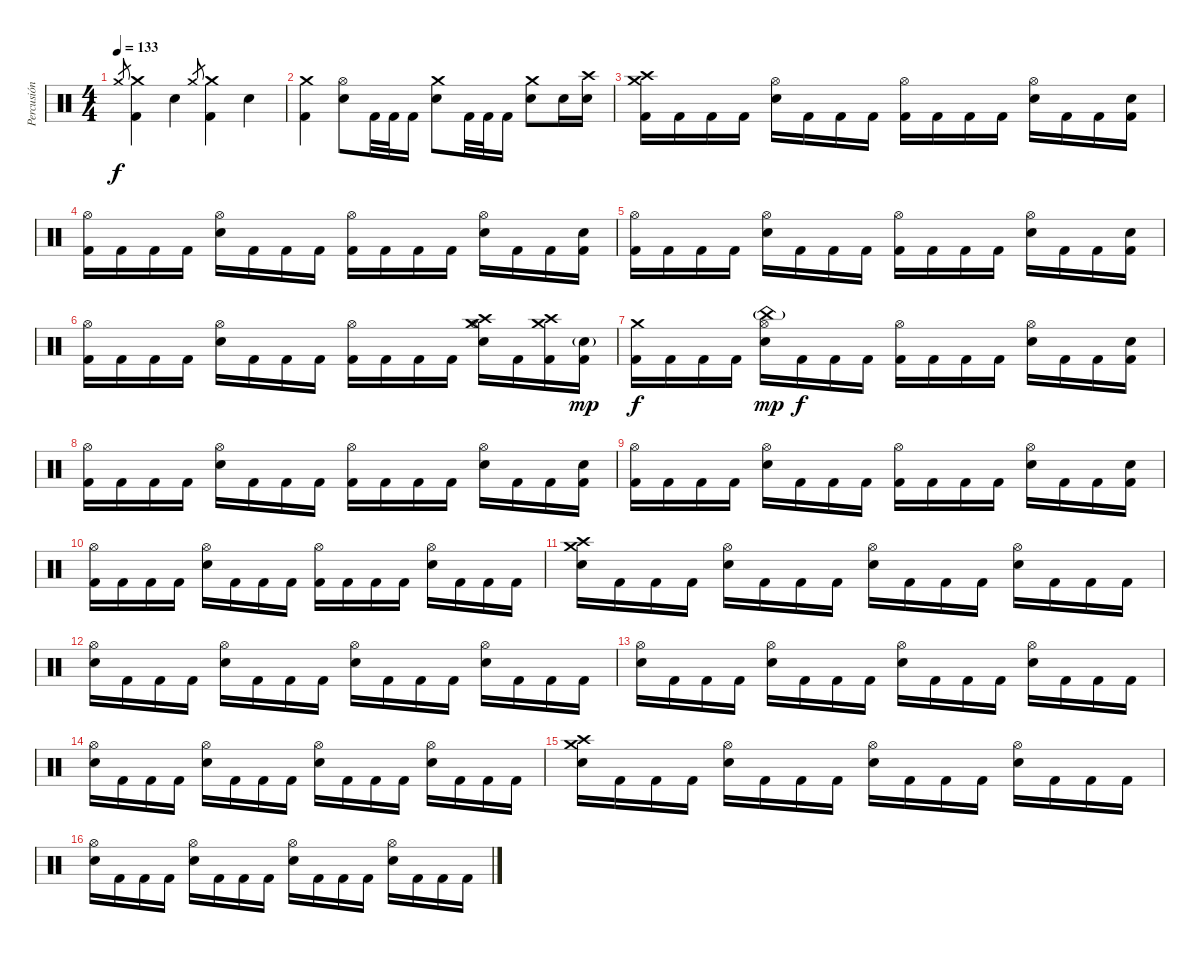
\track ("Percusión" "Percusión") {instrument percussion}
\staff {score}
\articulation defaults
\ts (4 4)
\tempo 133
\clef neutral
\ks c "Crash medium (hit)".8{gr dy f}
("Kick (hit) 2" "Crash medium (hit)").4 "Snare (hit) 2".4 "Crash medium (hit)".8{gr} ("Kick (hit) 2" "Crash medium (hit)").4 "Snare (hit) 2".4 |
("Kick (hit) 2" "Crash medium (hit)").4 ("Snare (hit) 2" "Hi-Hat (open)").8 "Kick (hit) 2".32 "Kick (hit) 2".32 "Kick (hit) 2".16 ("Snare (hit) 2" "Crash medium (hit)").8 "Kick (hit) 2".32 "Kick (hit) 2".32 "Kick (hit) 2".16 ("Snare (hit) 2" "Crash medium (hit)").8 "Snare (hit) 2".16 ("Snare (hit) 2" "Crash high (hit)").16 |
("Crash medium (hit)" "Kick (hit) 2" "Crash high (hit)").16 "Kick (hit) 2".16 "Kick (hit) 2".16 "Kick (hit) 2".16 ("Snare (hit) 2" "Hi-Hat (open)").16 "Kick (hit) 2".16 "Kick (hit) 2".16 "Kick (hit) 2".16 ("Kick (hit) 2" "Hi-Hat (open)").16 "Kick (hit) 2".16 "Kick (hit) 2".16 "Kick (hit) 2".16 ("Snare (hit) 2" "Hi-Hat (open)").16 "Kick (hit) 2".16 "Kick (hit) 2".16 ("Kick (hit) 2" "Snare (hit) 2").16 |
("Kick (hit) 2" "Hi-Hat (open)").16 "Kick (hit) 2".16 "Kick (hit) 2".16 "Kick (hit) 2".16 ("Snare (hit) 2" "Hi-Hat (open)").16 "Kick (hit) 2".16 "Kick (hit) 2".16 "Kick (hit) 2".16 ("Kick (hit) 2" "Hi-Hat (open)").16 "Kick (hit) 2".16 "Kick (hit) 2".16 "Kick (hit) 2".16 ("Snare (hit) 2" "Hi-Hat (open)").16 "Kick (hit) 2".16 "Kick (hit) 2".16 ("Kick (hit) 2" "Snare (hit) 2").16 |
("Kick (hit) 2" "Hi-Hat (open)").16 "Kick (hit) 2".16 "Kick (hit) 2".16 "Kick (hit) 2".16 ("Snare (hit) 2" "Hi-Hat (open)").16 "Kick (hit) 2".16 "Kick (hit) 2".16 "Kick (hit) 2".16 ("Kick (hit) 2" "Hi-Hat (open)").16 "Kick (hit) 2".16 "Kick (hit) 2".16 "Kick (hit) 2".16 ("Snare (hit) 2" "Hi-Hat (open)").16 "Kick (hit) 2".16 "Kick (hit) 2".16 ("Kick (hit) 2" "Snare (hit) 2").16 |
("Kick (hit) 2" "Hi-Hat (open)").16 "Kick (hit) 2".16 "Kick (hit) 2".16 "Kick (hit) 2".16 ("Snare (hit) 2" "Hi-Hat (open)").16 "Kick (hit) 2".16 "Kick (hit) 2".16 "Kick (hit) 2".16 ("Kick (hit) 2" "Hi-Hat (open)").16 "Kick (hit) 2".16 "Kick (hit) 2".16 "Kick (hit) 2".16 ("Snare (hit) 2" "Hi-Hat (open)" "Crash high (hit)" "Crash medium (hit)").16 "Kick (hit) 2".16 ("Kick (hit) 2" "Crash medium (hit)" "Crash high (hit)").16 ("Kick (hit) 2" "Snare (hit) 2"{g}).16{dy mp} |
("Crash medium (hit)" "Kick (hit) 2").16{dy f} "Kick (hit) 2".16 "Kick (hit) 2".16 "Kick (hit) 2".16 ("Snare (hit) 2" "China (hit)"{g} "Hi-Hat (open)").16{dy mp} "Kick (hit) 2".16{dy f} "Kick (hit) 2".16 "Kick (hit) 2".16 ("Kick (hit) 2" "Hi-Hat (open)").16 "Kick (hit) 2".16 "Kick (hit) 2".16 "Kick (hit) 2".16 ("Snare (hit) 2" "Hi-Hat (open)").16 "Kick (hit) 2".16 "Kick (hit) 2".16 ("Snare (hit) 2" "Kick (hit) 2").16 |
("Kick (hit) 2" "Hi-Hat (open)").16 "Kick (hit) 2".16 "Kick (hit) 2".16 "Kick (hit) 2".16 ("Snare (hit) 2" "Hi-Hat (open)").16 "Kick (hit) 2".16 "Kick (hit) 2".16 "Kick (hit) 2".16 ("Kick (hit) 2" "Hi-Hat (open)").16 "Kick (hit) 2".16 "Kick (hit) 2".16 "Kick (hit) 2".16 ("Snare (hit) 2" "Hi-Hat (open)").16 "Kick (hit) 2".16 "Kick (hit) 2".16 ("Kick (hit) 2" "Snare (hit) 2").16 |
("Kick (hit) 2" "Hi-Hat (open)").16 "Kick (hit) 2".16 "Kick (hit) 2".16 "Kick (hit) 2".16 ("Snare (hit) 2" "Hi-Hat (open)").16 "Kick (hit) 2".16 "Kick (hit) 2".16 "Kick (hit) 2".16 ("Kick (hit) 2" "Hi-Hat (open)").16 "Kick (hit) 2".16 "Kick (hit) 2".16 "Kick (hit) 2".16 ("Snare (hit) 2" "Hi-Hat (open)").16 "Kick (hit) 2".16 "Kick (hit) 2".16 ("Snare (hit) 2" "Kick (hit) 2").16 |
("Kick (hit) 2" "Hi-Hat (open)").16 "Kick (hit) 2".16 "Kick (hit) 2".16 "Kick (hit) 2".16 ("Snare (hit) 2" "Hi-Hat (open)").16 "Kick (hit) 2".16 "Kick (hit) 2".16 "Kick (hit) 2".16 ("Kick (hit) 2" "Hi-Hat (open)").16 "Kick (hit) 2".16 "Kick (hit) 2".16 "Kick (hit) 2".16 ("Snare (hit) 2" "Hi-Hat (open)").16 "Kick (hit) 2".16 "Kick (hit) 2".16 "Kick (hit) 2".16 |
("Snare (hit) 2" "Crash medium (hit)" "Crash high (hit)").16 "Kick (hit) 2".16 "Kick (hit) 2".16 "Kick (hit) 2".16 ("Snare (hit) 2" "Hi-Hat (open)").16 "Kick (hit) 2".16 "Kick (hit) 2".16 "Kick (hit) 2".16 ("Snare (hit) 2" "Hi-Hat (open)").16 "Kick (hit) 2".16 "Kick (hit) 2".16 "Kick (hit) 2".16 ("Snare (hit) 2" "Hi-Hat (open)").16 "Kick (hit) 2".16 "Kick (hit) 2".16 "Kick (hit) 2".16 |
("Snare (hit) 2" "Hi-Hat (open)").16 "Kick (hit) 2".16 "Kick (hit) 2".16 "Kick (hit) 2".16 ("Snare (hit) 2" "Hi-Hat (open)").16 "Kick (hit) 2".16 "Kick (hit) 2".16 "Kick (hit) 2".16 ("Snare (hit) 2" "Hi-Hat (open)").16 "Kick (hit) 2".16 "Kick (hit) 2".16 "Kick (hit) 2".16 ("Snare (hit) 2" "Hi-Hat (open)").16 "Kick (hit) 2".16 "Kick (hit) 2".16 "Kick (hit) 2".16 |
("Snare (hit) 2" "Hi-Hat (open)").16 "Kick (hit) 2".16 "Kick (hit) 2".16 "Kick (hit) 2".16 ("Snare (hit) 2" "Hi-Hat (open)").16 "Kick (hit) 2".16 "Kick (hit) 2".16 "Kick (hit) 2".16 ("Snare (hit) 2" "Hi-Hat (open)").16 "Kick (hit) 2".16 "Kick (hit) 2".16 "Kick (hit) 2".16 ("Snare (hit) 2" "Hi-Hat (open)").16 "Kick (hit) 2".16 "Kick (hit) 2".16 "Kick (hit) 2".16 |
("Snare (hit) 2" "Hi-Hat (open)").16 "Kick (hit) 2".16 "Kick (hit) 2".16 "Kick (hit) 2".16 ("Snare (hit) 2" "Hi-Hat (open)").16 "Kick (hit) 2".16 "Kick (hit) 2".16 "Kick (hit) 2".16 ("Snare (hit) 2" "Hi-Hat (open)").16 "Kick (hit) 2".16 "Kick (hit) 2".16 "Kick (hit) 2".16 ("Snare (hit) 2" "Hi-Hat (open)").16 "Kick (hit) 2".16 "Kick (hit) 2".16 "Kick (hit) 2".16 |
("Snare (hit) 2" "Crash medium (hit)" "Crash high (hit)").16 "Kick (hit) 2".16 "Kick (hit) 2".16 "Kick (hit) 2".16 ("Snare (hit) 2" "Hi-Hat (open)").16 "Kick (hit) 2".16 "Kick (hit) 2".16 "Kick (hit) 2".16 ("Snare (hit) 2" "Hi-Hat (open)").16 "Kick (hit) 2".16 "Kick (hit) 2".16 "Kick (hit) 2".16 ("Snare (hit) 2" "Hi-Hat (open)").16 "Kick (hit) 2".16 "Kick (hit) 2".16 "Kick (hit) 2".16 |
("Snare (hit) 2" "Hi-Hat (open)").16 "Kick (hit) 2".16 "Kick (hit) 2".16 "Kick (hit) 2".16 ("Snare (hit) 2" "Hi-Hat (open)").16 "Kick (hit) 2".16 "Kick (hit) 2".16 "Kick (hit) 2".16 ("Snare (hit) 2" "Hi-Hat (open)").16 "Kick (hit) 2".16 "Kick (hit) 2".16 "Kick (hit) 2".16 ("Snare (hit) 2" "Hi-Hat (open)").16 "Kick (hit) 2".16 "Kick (hit) 2".16 "Kick (hit) 2".16
